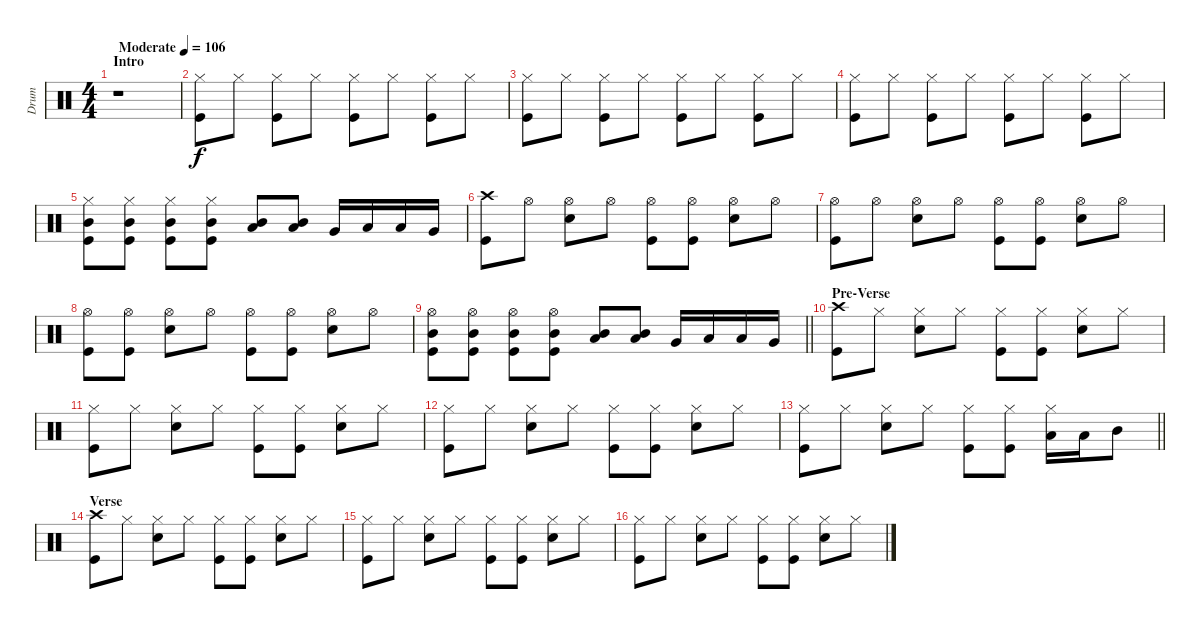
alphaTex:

\track ("Drum" "Drum") {instrument percussion}
\staff {score}
\articulation defaults
\ts (4 4)
\section ("" "Intro")
\tempo (106 "Moderate")
\clef neutral
\ks c
r.1{dy f} |
("Hi-Hat (closed)" "Kick (hit)").8 "Hi-Hat (closed)".8 ("Hi-Hat (closed)" "Kick (hit)").8 "Hi-Hat (closed)".8 ("Hi-Hat (closed)" "Kick (hit)").8 "Hi-Hat (closed)".8 ("Hi-Hat (closed)" "Kick (hit)").8 "Hi-Hat (closed)".8 |
("Hi-Hat (closed)" "Kick (hit)").8 "Hi-Hat (closed)".8 ("Hi-Hat (closed)" "Kick (hit)").8 "Hi-Hat (closed)".8 ("Hi-Hat (closed)" "Kick (hit)").8 "Hi-Hat (closed)".8 ("Hi-Hat (closed)" "Kick (hit)").8 "Hi-Hat (closed)".8 |
("Hi-Hat (closed)" "Kick (hit)").8 "Hi-Hat (closed)".8 ("Hi-Hat (closed)" "Kick (hit)").8 "Hi-Hat (closed)".8 ("Hi-Hat (closed)" "Kick (hit)").8 "Hi-Hat (closed)".8 ("Hi-Hat (closed)" "Kick (hit)").8 "Hi-Hat (closed)".8 |
("Hi-Hat (closed)" "Mid Tom (hit)" "Kick (hit)").8 ("Hi-Hat (closed)" "Mid Tom (hit)" "Kick (hit)").8 ("Hi-Hat (closed)" "Mid Tom (hit)" "Kick (hit)").8 ("Hi-Hat (closed)" "Mid Tom (hit)" "Kick (hit)").8 ("Mid Tom (hit)" "Low Tom (hit)").8 ("Mid Tom (hit)" "Low Tom (hit)").8 "Very Low Tom (hit)".16 "Low Floor Tom (hit)".16 "Low Tom (hit)".16 "Very Low Tom (hit)".16 |
("Crash high (hit)" "Kick (hit)").8 "Hi-Hat (open)".8 ("Hi-Hat (open)" "Electric Snare (hit)").8 "Hi-Hat (open)".8 ("Hi-Hat (open)" "Kick (hit)").8 ("Hi-Hat (open)" "Kick (hit)").8 ("Hi-Hat (open)" "Electric Snare (hit)").8 "Hi-Hat (open)".8 |
("Hi-Hat (open)" "Kick (hit)").8 "Hi-Hat (open)".8 ("Hi-Hat (open)" "Electric Snare (hit)").8 "Hi-Hat (open)".8 ("Hi-Hat (open)" "Kick (hit)").8 ("Hi-Hat (open)" "Kick (hit)").8 ("Hi-Hat (open)" "Electric Snare (hit)").8 "Hi-Hat (open)".8 |
("Hi-Hat (open)" "Kick (hit)").8 ("Hi-Hat (open)" "Kick (hit)").8 ("Hi-Hat (open)" "Electric Snare (hit)").8 "Hi-Hat (open)".8 ("Hi-Hat (open)" "Kick (hit)").8 ("Hi-Hat (open)" "Kick (hit)").8 ("Hi-Hat (open)" "Electric Snare (hit)").8 "Hi-Hat (open)".8 |
\barLineRight lightlight
("Hi-Hat (open)" "Mid Tom (hit)" "Kick (hit)").8 ("Hi-Hat (open)" "Mid Tom (hit)" "Kick (hit)").8 ("Hi-Hat (open)" "Mid Tom (hit)" "Kick (hit)").8 ("Hi-Hat (open)" "Mid Tom (hit)" "Kick (hit)").8 ("Mid Tom (hit)" "Low Tom (hit)").8 ("Mid Tom (hit)" "Low Tom (hit)").8 "Very Low Tom (hit)".16 "Low Floor Tom (hit)".16 "Low Tom (hit)".16 "Very Low Tom (hit)".16 |
\section ("" "Pre-Verse")
("Crash high (hit)" "Kick (hit)").8 "Hi-Hat (closed)".8 ("Hi-Hat (closed)" "Electric Snare (hit)").8 "Hi-Hat (closed)".8 ("Hi-Hat (closed)" "Kick (hit)").8 ("Hi-Hat (closed)" "Kick (hit)").8 ("Hi-Hat (closed)" "Electric Snare (hit)").8 "Hi-Hat (closed)".8 |
("Hi-Hat (closed)" "Kick (hit)").8 "Hi-Hat (closed)".8 ("Hi-Hat (closed)" "Electric Snare (hit)").8 "Hi-Hat (closed)".8 ("Hi-Hat (closed)" "Kick (hit)").8 ("Hi-Hat (closed)" "Kick (hit)").8 ("Hi-Hat (closed)" "Electric Snare (hit)").8 "Hi-Hat (closed)".8 |
("Hi-Hat (closed)" "Kick (hit)").8 "Hi-Hat (closed)".8 ("Hi-Hat (closed)" "Electric Snare (hit)").8 "Hi-Hat (closed)".8 ("Hi-Hat (closed)" "Kick (hit)").8 ("Hi-Hat (closed)" "Kick (hit)").8 ("Hi-Hat (closed)" "Electric Snare (hit)").8 "Hi-Hat (closed)".8 |
\barLineRight lightlight
("Hi-Hat (closed)" "Kick (hit)").8 "Hi-Hat (closed)".8 ("Hi-Hat (closed)" "Electric Snare (hit)").8 "Hi-Hat (closed)".8 ("Hi-Hat (closed)" "Kick (hit)").8 ("Hi-Hat (closed)" "Kick (hit)").8 ("Hi-Hat (closed)" "Low Tom (hit)").16 "Low Tom (hit)".16 "Mid Tom (hit)".8 |
\section ("" "Verse")
("Crash high (hit)" "Kick (hit)").8 "Hi-Hat (closed)".8 ("Hi-Hat (closed)" "Electric Snare (hit)").8 "Hi-Hat (closed)".8 ("Hi-Hat (closed)" "Kick (hit)").8 ("Hi-Hat (closed)" "Kick (hit)").8 ("Hi-Hat (closed)" "Electric Snare (hit)").8 "Hi-Hat (closed)".8 |
("Hi-Hat (closed)" "Kick (hit)").8 "Hi-Hat (closed)".8 ("Hi-Hat (closed)" "Electric Snare (hit)").8 "Hi-Hat (closed)".8 ("Hi-Hat (closed)" "Kick (hit)").8 ("Hi-Hat (closed)" "Kick (hit)").8 ("Hi-Hat (closed)" "Electric Snare (hit)").8 "Hi-Hat (closed)".8 |
("Hi-Hat (closed)" "Kick (hit)").8 "Hi-Hat (closed)".8 ("Hi-Hat (closed)" "Electric Snare (hit)").8 "Hi-Hat (closed)".8 ("Hi-Hat (closed)" "Kick (hit)").8 ("Hi-Hat (closed)" "Kick (hit)").8 ("Hi-Hat (closed)" "Electric Snare (hit)").8 "Hi-Hat (closed)".8
